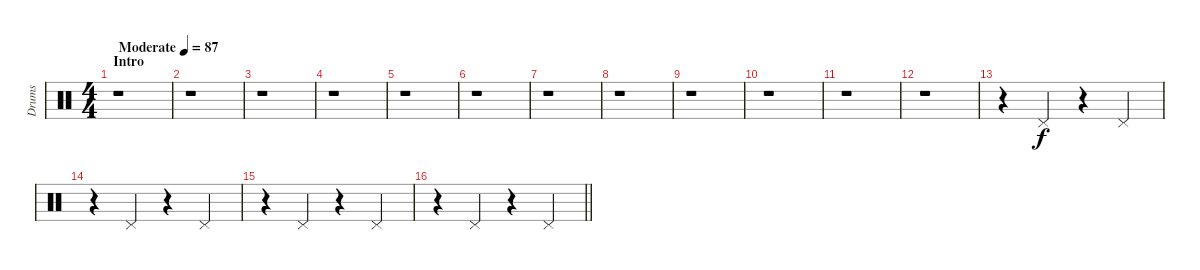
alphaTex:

\track ("Drums" "Drums") {instrument percussion}
\staff {score}
\articulation defaults
\ts (4 4)
\section ("" "Intro")
\tempo (87 "Moderate")
\clef neutral
\ks c
r.1{dy f} |
r.1 |
r.1 |
r.1 |
r.1 |
r.1 |
r.1 |
r.1 |
r.1 |
r.1 |
r.1 |
r.1 |
r.4 "Pedal Hi-Hat (hit)".4 r.4 "Pedal Hi-Hat (hit)".4 |
r.4 "Pedal Hi-Hat (hit)".4 r.4 "Pedal Hi-Hat (hit)".4 |
r.4 "Pedal Hi-Hat (hit)".4 r.4 "Pedal Hi-Hat (hit)".4 |
\barLineRight lightlight
r.4 "Pedal Hi-Hat (hit)".4 r.4 "Pedal Hi-Hat (hit)".4
